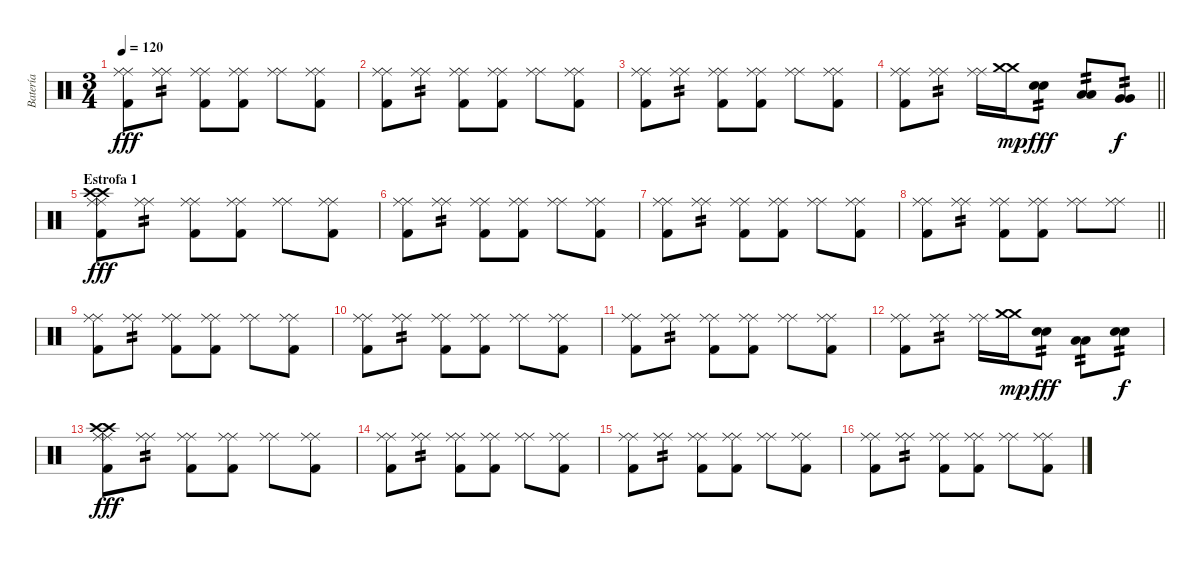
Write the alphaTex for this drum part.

\track ("Batería" "Batería") {instrument percussion}
\staff {score}
\articulation defaults
\ts (3 4)
\tempo 120
\clef neutral
\ks c
("Ride (middle)" "Ride (middle)" "Kick (hit) 2").8{dy fff} ("Ride (middle)" "Ride (middle)").8{tp 2} ("Ride (middle)" "Ride (middle)" "Kick (hit) 2").8 ("Ride (middle)" "Ride (middle)" "Kick (hit) 2").8 ("Ride (middle)" "Ride (middle)").8 ("Ride (middle)" "Ride (middle)" "Kick (hit) 2").8 |
("Ride (middle)" "Ride (middle)" "Kick (hit) 2").8 ("Ride (middle)" "Ride (middle)").8{tp 2} ("Ride (middle)" "Ride (middle)" "Kick (hit) 2").8 ("Ride (middle)" "Ride (middle)" "Kick (hit) 2").8 ("Ride (middle)" "Ride (middle)").8 ("Ride (middle)" "Ride (middle)" "Kick (hit) 2").8 |
("Ride (middle)" "Ride (middle)" "Kick (hit) 2").8 ("Ride (middle)" "Ride (middle)").8{tp 2} ("Ride (middle)" "Ride (middle)" "Kick (hit) 2").8 ("Ride (middle)" "Ride (middle)" "Kick (hit) 2").8 ("Ride (middle)" "Ride (middle)").8 ("Ride (middle)" "Ride (middle)" "Kick (hit) 2").8 |
\barLineRight lightlight
("Ride (middle)" "Ride (middle)" "Kick (hit) 2").8 ("Ride (middle)" "Ride (middle)").8{tp 2} ("Ride (middle)" "Ride (middle)").16 ("Crash medium (hit)" "Crash medium (hit)").16{dy mp} ("Electric Snare (hit)" "Electric Snare (hit)").8{tp 2 dy fff} ("Low Tom (hit)" "Low Tom (hit)").8{tp 2} ("Very Low Tom (hit)" "Very Low Tom (hit)").8{tp 2 dy f} |
\section ("" "Estrofa 1")
("Ride (middle)" "Ride (middle)" "Crash high (hit)" "Crash high (hit)" "Kick (hit) 2").8{dy fff} ("Ride (middle)" "Ride (middle)").8{tp 2} ("Ride (middle)" "Ride (middle)" "Kick (hit) 2").8 ("Ride (middle)" "Ride (middle)" "Kick (hit) 2").8 ("Ride (middle)" "Ride (middle)").8 ("Ride (middle)" "Ride (middle)" "Kick (hit) 2").8 |
("Ride (middle)" "Ride (middle)" "Kick (hit) 2").8 ("Ride (middle)" "Ride (middle)").8{tp 2} ("Ride (middle)" "Ride (middle)" "Kick (hit) 2").8 ("Ride (middle)" "Ride (middle)" "Kick (hit) 2").8 ("Ride (middle)" "Ride (middle)").8 ("Ride (middle)" "Ride (middle)" "Kick (hit) 2").8 |
("Ride (middle)" "Ride (middle)" "Kick (hit) 2").8 ("Ride (middle)" "Ride (middle)").8{tp 2} ("Ride (middle)" "Ride (middle)" "Kick (hit) 2").8 ("Ride (middle)" "Ride (middle)" "Kick (hit) 2").8 ("Ride (middle)" "Ride (middle)").8 ("Ride (middle)" "Ride (middle)" "Kick (hit) 2").8 |
\barLineRight lightlight
("Ride (middle)" "Ride (middle)" "Kick (hit) 2").8 ("Ride (middle)" "Ride (middle)").8{tp 2} ("Ride (middle)" "Ride (middle)" "Kick (hit) 2").8 ("Ride (middle)" "Ride (middle)" "Kick (hit) 2").8 ("Ride (middle)" "Ride (middle)").8 ("Ride (middle)" "Ride (middle)").8 |
("Ride (middle)" "Ride (middle)" "Kick (hit) 2").8 ("Ride (middle)" "Ride (middle)").8{tp 2} ("Ride (middle)" "Ride (middle)" "Kick (hit) 2").8 ("Ride (middle)" "Ride (middle)" "Kick (hit) 2").8 ("Ride (middle)" "Ride (middle)").8 ("Ride (middle)" "Ride (middle)" "Kick (hit) 2").8 |
("Ride (middle)" "Ride (middle)" "Kick (hit) 2").8 ("Ride (middle)" "Ride (middle)").8{tp 2} ("Ride (middle)" "Ride (middle)" "Kick (hit) 2").8 ("Ride (middle)" "Ride (middle)" "Kick (hit) 2").8 ("Ride (middle)" "Ride (middle)").8 ("Ride (middle)" "Ride (middle)" "Kick (hit) 2").8 |
("Ride (middle)" "Ride (middle)" "Kick (hit) 2").8 ("Ride (middle)" "Ride (middle)").8{tp 2} ("Ride (middle)" "Ride (middle)" "Kick (hit) 2").8 ("Ride (middle)" "Ride (middle)" "Kick (hit) 2").8 ("Ride (middle)" "Ride (middle)").8 ("Ride (middle)" "Ride (middle)" "Kick (hit) 2").8 |
("Ride (middle)" "Ride (middle)" "Kick (hit) 2").8 ("Ride (middle)" "Ride (middle)").8{tp 2} ("Ride (middle)" "Ride (middle)").16 ("Crash medium (hit)" "Crash medium (hit)").16{dy mp} ("Electric Snare (hit)" "Electric Snare (hit)").8{tp 2 dy fff} ("Low Tom (hit)" "Low Tom (hit)").8{tp 2} ("Electric Snare (hit)" "Electric Snare (hit)").8{tp 2 dy f} |
("Ride (middle)" "Ride (middle)" "Crash high (hit)" "Crash high (hit)" "Kick (hit) 2").8{dy fff} ("Ride (middle)" "Ride (middle)").8{tp 2} ("Ride (middle)" "Ride (middle)" "Kick (hit) 2").8 ("Ride (middle)" "Ride (middle)" "Kick (hit) 2").8 ("Ride (middle)" "Ride (middle)").8 ("Ride (middle)" "Ride (middle)" "Kick (hit) 2").8 |
("Ride (middle)" "Ride (middle)" "Kick (hit) 2").8 ("Ride (middle)" "Ride (middle)").8{tp 2} ("Ride (middle)" "Ride (middle)" "Kick (hit) 2").8 ("Ride (middle)" "Ride (middle)" "Kick (hit) 2").8 ("Ride (middle)" "Ride (middle)").8 ("Ride (middle)" "Ride (middle)" "Kick (hit) 2").8 |
("Ride (middle)" "Ride (middle)" "Kick (hit) 2").8 ("Ride (middle)" "Ride (middle)").8{tp 2} ("Ride (middle)" "Ride (middle)" "Kick (hit) 2").8 ("Ride (middle)" "Ride (middle)" "Kick (hit) 2").8 ("Ride (middle)" "Ride (middle)").8 ("Ride (middle)" "Ride (middle)" "Kick (hit) 2").8 |
("Ride (middle)" "Ride (middle)" "Kick (hit) 2").8 ("Ride (middle)" "Ride (middle)").8{tp 2} ("Ride (middle)" "Ride (middle)" "Kick (hit) 2").8 ("Ride (middle)" "Ride (middle)" "Kick (hit) 2").8 ("Ride (middle)" "Ride (middle)").8 ("Ride (middle)" "Ride (middle)" "Kick (hit) 2").8
